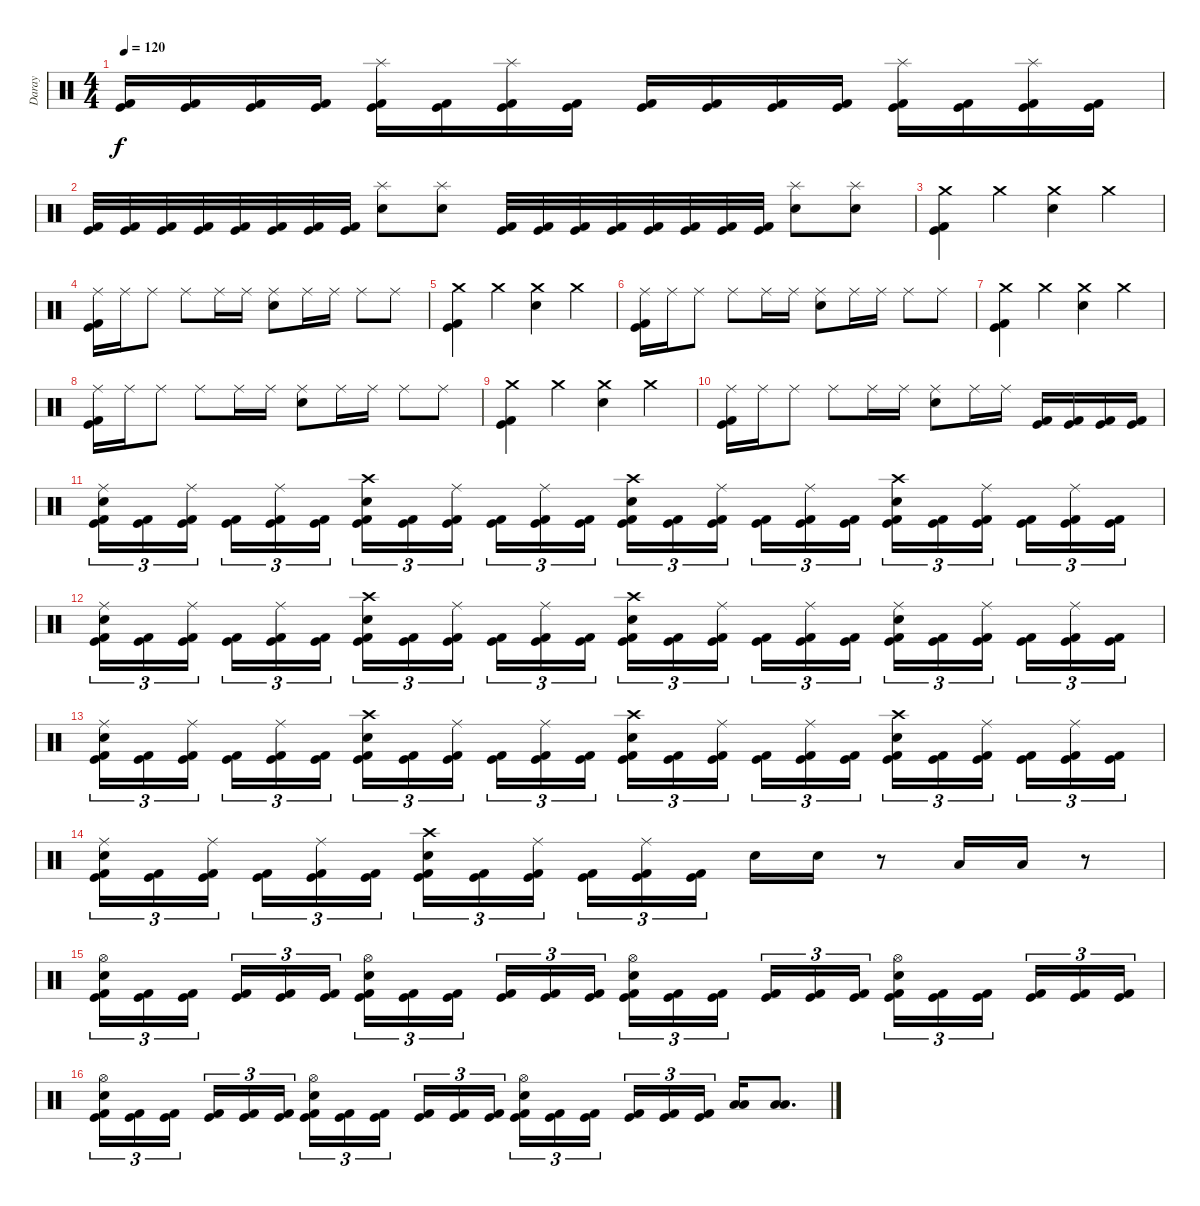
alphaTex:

\track ("Daray" "Daray") {instrument percussion}
\staff {score}
\articulation defaults
\ts (4 4)
\tempo 120
\clef neutral
\ks c
("Kick (hit) 2" "Kick (hit)").16{dy f} ("Kick (hit) 2" "Kick (hit)").16 ("Kick (hit) 2" "Kick (hit)").16 ("Kick (hit) 2" "Kick (hit)").16 ("Splash (hit)" "Kick (hit) 2" "Kick (hit)").16 ("Kick (hit) 2" "Kick (hit)").16 ("Splash (hit)" "Kick (hit) 2" "Kick (hit)").16 ("Kick (hit) 2" "Kick (hit)").16 ("Kick (hit) 2" "Kick (hit)").16 ("Kick (hit) 2" "Kick (hit)").16 ("Kick (hit) 2" "Kick (hit)").16 ("Kick (hit) 2" "Kick (hit)").16 ("Splash (hit)" "Kick (hit) 2" "Kick (hit)").16 ("Kick (hit) 2" "Kick (hit)").16 ("Splash (hit)" "Kick (hit) 2" "Kick (hit)").16 ("Kick (hit) 2" "Kick (hit)").16 |
("Kick (hit) 2" "Kick (hit)").32 ("Kick (hit) 2" "Kick (hit)").32 ("Kick (hit) 2" "Kick (hit)").32 ("Kick (hit) 2" "Kick (hit)").32 ("Kick (hit) 2" "Kick (hit)").32 ("Kick (hit) 2" "Kick (hit)").32 ("Kick (hit) 2" "Kick (hit)").32 ("Kick (hit) 2" "Kick (hit)").32 ("Splash (hit)" "Snare (hit) 2").8 ("Splash (hit)" "Snare (hit) 2").8 ("Kick (hit) 2" "Kick (hit)").32 ("Kick (hit) 2" "Kick (hit)").32 ("Kick (hit) 2" "Kick (hit)").32 ("Kick (hit) 2" "Kick (hit)").32 ("Kick (hit) 2" "Kick (hit)").32 ("Kick (hit) 2" "Kick (hit)").32 ("Kick (hit) 2" "Kick (hit)").32 ("Kick (hit) 2" "Kick (hit)").32 ("Splash (hit)" "Snare (hit) 2").8 ("Splash (hit)" "Snare (hit) 2").8 |
("Crash medium (hit)" "Kick (hit) 2" "Kick (hit)").4 "Crash medium (hit)".4 ("Crash medium (hit)" "Snare (hit) 2").4 "Crash medium (hit)".4 |
("Ride (middle)" "Kick (hit) 2" "Kick (hit)").16 "Ride (middle)".16 "Ride (middle)".8 "Ride (middle)".8 "Ride (middle)".16 "Ride (middle)".16 ("Ride (middle)" "Snare (hit) 2").8 "Ride (middle)".16 "Ride (middle)".16 "Ride (middle)".8 "Ride (middle)".8 |
("Crash medium (hit)" "Kick (hit) 2" "Kick (hit)").4 "Crash medium (hit)".4 ("Crash medium (hit)" "Snare (hit) 2").4 "Crash medium (hit)".4 |
("Ride (middle)" "Kick (hit) 2" "Kick (hit)").16 "Ride (middle)".16 "Ride (middle)".8 "Ride (middle)".8 "Ride (middle)".16 "Ride (middle)".16 ("Ride (middle)" "Snare (hit) 2").8 "Ride (middle)".16 "Ride (middle)".16 "Ride (middle)".8 "Ride (middle)".8 |
("Crash medium (hit)" "Kick (hit) 2" "Kick (hit)").4 "Crash medium (hit)".4 ("Crash medium (hit)" "Snare (hit) 2").4 "Crash medium (hit)".4 |
("Ride (middle)" "Kick (hit) 2" "Kick (hit)").16 "Ride (middle)".16 "Ride (middle)".8 "Ride (middle)".8 "Ride (middle)".16 "Ride (middle)".16 ("Ride (middle)" "Snare (hit) 2").8 "Ride (middle)".16 "Ride (middle)".16 "Ride (middle)".8 "Ride (middle)".8 |
("Crash medium (hit)" "Kick (hit) 2" "Kick (hit)").4 "Crash medium (hit)".4 ("Crash medium (hit)" "Snare (hit) 2").4 "Crash medium (hit)".4 |
("Ride (middle)" "Kick (hit) 2" "Kick (hit)").16 "Ride (middle)".16 "Ride (middle)".8 "Ride (middle)".8 "Ride (middle)".16 "Ride (middle)".16 ("Ride (middle)" "Snare (hit) 2").8 "Ride (middle)".16 "Ride (middle)".16 ("Kick (hit) 2" "Kick (hit)").16 ("Kick (hit) 2" "Kick (hit)").16 ("Kick (hit) 2" "Kick (hit)").16 ("Kick (hit) 2" "Kick (hit)").16 |
("Ride (middle)" "Snare (hit) 2" "Kick (hit) 2" "Kick (hit)").16{tu (3 2)} ("Kick (hit) 2" "Kick (hit)").16{tu (3 2)} ("Ride (middle)" "Kick (hit) 2" "Kick (hit)").16{tu (3 2)} ("Kick (hit) 2" "Kick (hit)").16{tu (3 2)} ("Ride (middle)" "Kick (hit) 2" "Kick (hit)").16{tu (3 2)} ("Kick (hit) 2" "Kick (hit)").16{tu (3 2)} ("Crash high (hit)" "Snare (hit) 2" "Kick (hit) 2" "Kick (hit)").16{tu (3 2)} ("Kick (hit) 2" "Kick (hit)").16{tu (3 2)} ("Ride (middle)" "Kick (hit) 2" "Kick (hit)").16{tu (3 2)} ("Kick (hit) 2" "Kick (hit)").16{tu (3 2)} ("Ride (middle)" "Kick (hit) 2" "Kick (hit)").16{tu (3 2)} ("Kick (hit) 2" "Kick (hit)").16{tu (3 2)} ("Crash high (hit)" "Snare (hit) 2" "Kick (hit) 2" "Kick (hit)").16{tu (3 2)} ("Kick (hit) 2" "Kick (hit)").16{tu (3 2)} ("Ride (middle)" "Kick (hit) 2" "Kick (hit)").16{tu (3 2)} ("Kick (hit) 2" "Kick (hit)").16{tu (3 2)} ("Ride (middle)" "Kick (hit) 2" "Kick (hit)").16{tu (3 2)} ("Kick (hit) 2" "Kick (hit)").16{tu (3 2)} ("Crash high (hit)" "Snare (hit) 2" "Kick (hit) 2" "Kick (hit)").16{tu (3 2)} ("Kick (hit) 2" "Kick (hit)").16{tu (3 2)} ("Ride (middle)" "Kick (hit) 2" "Kick (hit)").16{tu (3 2)} ("Kick (hit) 2" "Kick (hit)").16{tu (3 2)} ("Ride (middle)" "Kick (hit) 2" "Kick (hit)").16{tu (3 2)} ("Kick (hit) 2" "Kick (hit)").16{tu (3 2)} |
("Ride (middle)" "Snare (hit) 2" "Kick (hit) 2" "Kick (hit)").16{tu (3 2)} ("Kick (hit) 2" "Kick (hit)").16{tu (3 2)} ("Ride (middle)" "Kick (hit) 2" "Kick (hit)").16{tu (3 2)} ("Kick (hit) 2" "Kick (hit)").16{tu (3 2)} ("Ride (middle)" "Kick (hit) 2" "Kick (hit)").16{tu (3 2)} ("Kick (hit) 2" "Kick (hit)").16{tu (3 2)} ("Crash high (hit)" "Snare (hit) 2" "Kick (hit) 2" "Kick (hit)").16{tu (3 2)} ("Kick (hit) 2" "Kick (hit)").16{tu (3 2)} ("Ride (middle)" "Kick (hit) 2" "Kick (hit)").16{tu (3 2)} ("Kick (hit) 2" "Kick (hit)").16{tu (3 2)} ("Ride (middle)" "Kick (hit) 2" "Kick (hit)").16{tu (3 2)} ("Kick (hit) 2" "Kick (hit)").16{tu (3 2)} ("Crash high (hit)" "Snare (hit) 2" "Kick (hit) 2" "Kick (hit)").16{tu (3 2)} ("Kick (hit) 2" "Kick (hit)").16{tu (3 2)} ("Ride (middle)" "Kick (hit) 2" "Kick (hit)").16{tu (3 2)} ("Kick (hit) 2" "Kick (hit)").16{tu (3 2)} ("Ride (middle)" "Kick (hit) 2" "Kick (hit)").16{tu (3 2)} ("Kick (hit) 2" "Kick (hit)").16{tu (3 2)} ("Ride (middle)" "Snare (hit) 2" "Kick (hit) 2" "Kick (hit)").16{tu (3 2)} ("Kick (hit) 2" "Kick (hit)").16{tu (3 2)} ("Ride (middle)" "Kick (hit) 2" "Kick (hit)").16{tu (3 2)} ("Kick (hit) 2" "Kick (hit)").16{tu (3 2)} ("Ride (middle)" "Kick (hit) 2" "Kick (hit)").16{tu (3 2)} ("Kick (hit) 2" "Kick (hit)").16{tu (3 2)} |
("Ride (middle)" "Snare (hit) 2" "Kick (hit) 2" "Kick (hit)").16{tu (3 2)} ("Kick (hit) 2" "Kick (hit)").16{tu (3 2)} ("Ride (middle)" "Kick (hit) 2" "Kick (hit)").16{tu (3 2)} ("Kick (hit) 2" "Kick (hit)").16{tu (3 2)} ("Ride (middle)" "Kick (hit) 2" "Kick (hit)").16{tu (3 2)} ("Kick (hit) 2" "Kick (hit)").16{tu (3 2)} ("Crash high (hit)" "Snare (hit) 2" "Kick (hit) 2" "Kick (hit)").16{tu (3 2)} ("Kick (hit) 2" "Kick (hit)").16{tu (3 2)} ("Ride (middle)" "Kick (hit) 2" "Kick (hit)").16{tu (3 2)} ("Kick (hit) 2" "Kick (hit)").16{tu (3 2)} ("Ride (middle)" "Kick (hit) 2" "Kick (hit)").16{tu (3 2)} ("Kick (hit) 2" "Kick (hit)").16{tu (3 2)} ("Crash high (hit)" "Snare (hit) 2" "Kick (hit) 2" "Kick (hit)").16{tu (3 2)} ("Kick (hit) 2" "Kick (hit)").16{tu (3 2)} ("Ride (middle)" "Kick (hit) 2" "Kick (hit)").16{tu (3 2)} ("Kick (hit) 2" "Kick (hit)").16{tu (3 2)} ("Ride (middle)" "Kick (hit) 2" "Kick (hit)").16{tu (3 2)} ("Kick (hit) 2" "Kick (hit)").16{tu (3 2)} ("Crash high (hit)" "Snare (hit) 2" "Kick (hit) 2" "Kick (hit)").16{tu (3 2)} ("Kick (hit) 2" "Kick (hit)").16{tu (3 2)} ("Ride (middle)" "Kick (hit) 2" "Kick (hit)").16{tu (3 2)} ("Kick (hit) 2" "Kick (hit)").16{tu (3 2)} ("Ride (middle)" "Kick (hit) 2" "Kick (hit)").16{tu (3 2)} ("Kick (hit) 2" "Kick (hit)").16{tu (3 2)} |
("Ride (middle)" "Snare (hit) 2" "Kick (hit) 2" "Kick (hit)").16{tu (3 2)} ("Kick (hit) 2" "Kick (hit)").16{tu (3 2)} ("Ride (middle)" "Kick (hit) 2" "Kick (hit)").16{tu (3 2)} ("Kick (hit) 2" "Kick (hit)").16{tu (3 2)} ("Ride (middle)" "Kick (hit) 2" "Kick (hit)").16{tu (3 2)} ("Kick (hit) 2" "Kick (hit)").16{tu (3 2)} ("Crash high (hit)" "Snare (hit) 2" "Kick (hit) 2" "Kick (hit)").16{tu (3 2)} ("Kick (hit) 2" "Kick (hit)").16{tu (3 2)} ("Ride (middle)" "Kick (hit) 2" "Kick (hit)").16{tu (3 2)} ("Kick (hit) 2" "Kick (hit)").16{tu (3 2)} ("Ride (middle)" "Kick (hit) 2" "Kick (hit)").16{tu (3 2)} ("Kick (hit) 2" "Kick (hit)").16{tu (3 2)} "Snare (hit) 2".16 "Snare (hit) 2".16 r.8 "Low Tom (hit)".16 "Low Tom (hit)".16 r.8 |
("Hi-Hat (open)" "Snare (hit) 2" "Kick (hit) 2" "Kick (hit)").16{tu (3 2)} ("Kick (hit) 2" "Kick (hit)").16{tu (3 2)} ("Kick (hit) 2" "Kick (hit)").16{tu (3 2)} ("Kick (hit) 2" "Kick (hit)").16{tu (3 2)} ("Kick (hit) 2" "Kick (hit)").16{tu (3 2)} ("Kick (hit) 2" "Kick (hit)").16{tu (3 2)} ("Hi-Hat (open)" "Snare (hit) 2" "Kick (hit) 2" "Kick (hit)").16{tu (3 2)} ("Kick (hit) 2" "Kick (hit)").16{tu (3 2)} ("Kick (hit) 2" "Kick (hit)").16{tu (3 2)} ("Kick (hit) 2" "Kick (hit)").16{tu (3 2)} ("Kick (hit) 2" "Kick (hit)").16{tu (3 2)} ("Kick (hit) 2" "Kick (hit)").16{tu (3 2)} ("Hi-Hat (open)" "Snare (hit) 2" "Kick (hit) 2" "Kick (hit)").16{tu (3 2)} ("Kick (hit) 2" "Kick (hit)").16{tu (3 2)} ("Kick (hit) 2" "Kick (hit)").16{tu (3 2)} ("Kick (hit) 2" "Kick (hit)").16{tu (3 2)} ("Kick (hit) 2" "Kick (hit)").16{tu (3 2)} ("Kick (hit) 2" "Kick (hit)").16{tu (3 2)} ("Hi-Hat (open)" "Snare (hit) 2" "Kick (hit) 2" "Kick (hit)").16{tu (3 2)} ("Kick (hit) 2" "Kick (hit)").16{tu (3 2)} ("Kick (hit) 2" "Kick (hit)").16{tu (3 2)} ("Kick (hit) 2" "Kick (hit)").16{tu (3 2)} ("Kick (hit) 2" "Kick (hit)").16{tu (3 2)} ("Kick (hit) 2" "Kick (hit)").16{tu (3 2)} |
("Hi-Hat (open)" "Snare (hit) 2" "Kick (hit) 2" "Kick (hit)").16{tu (3 2)} ("Kick (hit) 2" "Kick (hit)").16{tu (3 2)} ("Kick (hit) 2" "Kick (hit)").16{tu (3 2)} ("Kick (hit) 2" "Kick (hit)").16{tu (3 2)} ("Kick (hit) 2" "Kick (hit)").16{tu (3 2)} ("Kick (hit) 2" "Kick (hit)").16{tu (3 2)} ("Hi-Hat (open)" "Snare (hit) 2" "Kick (hit) 2" "Kick (hit)").16{tu (3 2)} ("Kick (hit) 2" "Kick (hit)").16{tu (3 2)} ("Kick (hit) 2" "Kick (hit)").16{tu (3 2)} ("Kick (hit) 2" "Kick (hit)").16{tu (3 2)} ("Kick (hit) 2" "Kick (hit)").16{tu (3 2)} ("Kick (hit) 2" "Kick (hit)").16{tu (3 2)} ("Hi-Hat (open)" "Snare (hit) 2" "Kick (hit) 2" "Kick (hit)").16{tu (3 2)} ("Kick (hit) 2" "Kick (hit)").16{tu (3 2)} ("Kick (hit) 2" "Kick (hit)").16{tu (3 2)} ("Kick (hit) 2" "Kick (hit)").16{tu (3 2)} ("Kick (hit) 2" "Kick (hit)").16{tu (3 2)} ("Kick (hit) 2" "Kick (hit)").16{tu (3 2)} ("Low Tom (hit)" "Low Floor Tom (hit)").16 ("Low Tom (hit)" "Low Floor Tom (hit)").8{d}
